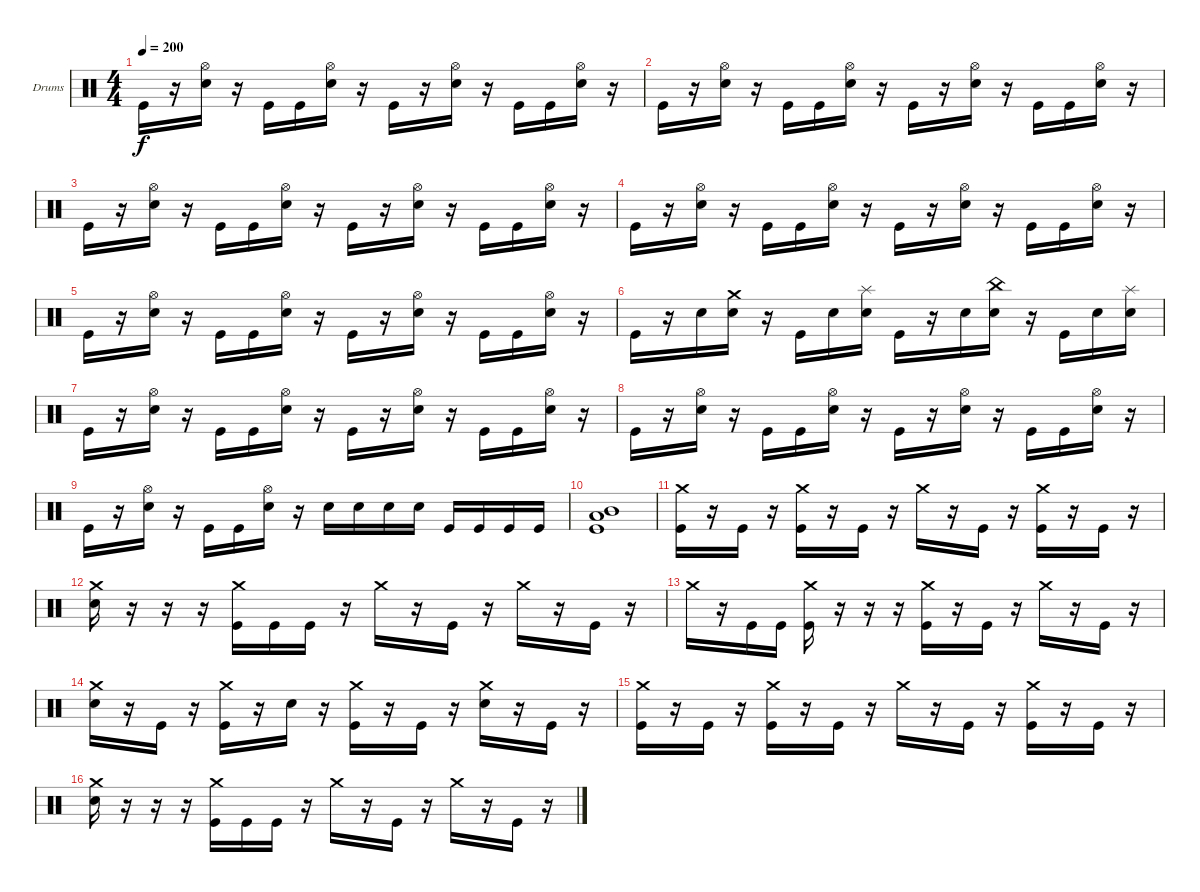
\defaultSystemsLayout 4
\bracketExtendMode groupsimilarinstruments
\firstSystemTrackNameOrientation horizontal
\otherSystemsTrackNameOrientation horizontal
\track ("Drumkit" "Drums") {instrument percussion}
\staff {score}
\articulation defaults
\ts (4 4)
\tempo 200
\clef neutral
\ks c "Kick (hit)".16{dy f}
r.16 ("Snare (hit) 2" "Hi-Hat (open)").16 r.16 "Kick (hit)".16 "Kick (hit)".16 ("Snare (hit) 2" "Hi-Hat (open)").16 r.16 "Kick (hit)".16 r.16 ("Snare (hit) 2" "Hi-Hat (open)").16 r.16 "Kick (hit)".16 "Kick (hit)".16 ("Snare (hit) 2" "Hi-Hat (open)").16 r.16 |
"Kick (hit)".16 r.16 ("Snare (hit) 2" "Hi-Hat (open)").16 r.16 "Kick (hit)".16 "Kick (hit)".16 ("Snare (hit) 2" "Hi-Hat (open)").16 r.16 "Kick (hit)".16 r.16 ("Snare (hit) 2" "Hi-Hat (open)").16 r.16 "Kick (hit)".16 "Kick (hit)".16 ("Snare (hit) 2" "Hi-Hat (open)").16 r.16 |
"Kick (hit)".16 r.16 ("Snare (hit) 2" "Hi-Hat (open)").16 r.16 "Kick (hit)".16 "Kick (hit)".16 ("Snare (hit) 2" "Hi-Hat (open)").16 r.16 "Kick (hit)".16 r.16 ("Snare (hit) 2" "Hi-Hat (open)").16 r.16 "Kick (hit)".16 "Kick (hit)".16 ("Snare (hit) 2" "Hi-Hat (open)").16 r.16 |
"Kick (hit)".16 r.16 ("Snare (hit) 2" "Hi-Hat (open)").16 r.16 "Kick (hit)".16 "Kick (hit)".16 ("Snare (hit) 2" "Hi-Hat (open)").16 r.16 "Kick (hit)".16 r.16 ("Snare (hit) 2" "Hi-Hat (open)").16 r.16 "Kick (hit)".16 "Kick (hit)".16 ("Snare (hit) 2" "Hi-Hat (open)").16 r.16 |
"Kick (hit)".16 r.16 ("Snare (hit) 2" "Hi-Hat (open)").16 r.16 "Kick (hit)".16 "Kick (hit)".16 ("Snare (hit) 2" "Hi-Hat (open)").16 r.16 "Kick (hit)".16 r.16 ("Snare (hit) 2" "Hi-Hat (open)").16 r.16 "Kick (hit)".16 "Kick (hit)".16 ("Snare (hit) 2" "Hi-Hat (open)").16 r.16 |
"Kick (hit)".16 r.16 "Snare (hit) 2".16 ("Snare (hit) 2" "Crash medium (hit)").16 r.16 "Kick (hit)".16 "Snare (hit) 2".16 ("Snare (hit) 2" "Splash (hit)").16 "Kick (hit)".16 r.16 "Snare (hit) 2".16 ("Snare (hit) 2" "China (hit)").16 r.16 "Kick (hit)".16 "Snare (hit) 2".16 ("Snare (hit) 2" "Splash (hit)").16 |
"Kick (hit)".16 r.16 ("Snare (hit) 2" "Hi-Hat (open)").16 r.16 "Kick (hit)".16 "Kick (hit)".16 ("Snare (hit) 2" "Hi-Hat (open)").16 r.16 "Kick (hit)".16 r.16 ("Snare (hit) 2" "Hi-Hat (open)").16 r.16 "Kick (hit)".16 "Kick (hit)".16 ("Snare (hit) 2" "Hi-Hat (open)").16 r.16 |
"Kick (hit)".16 r.16 ("Snare (hit) 2" "Hi-Hat (open)").16 r.16 "Kick (hit)".16 "Kick (hit)".16 ("Snare (hit) 2" "Hi-Hat (open)").16 r.16 "Kick (hit)".16 r.16 ("Snare (hit) 2" "Hi-Hat (open)").16 r.16 "Kick (hit)".16 "Kick (hit)".16 ("Snare (hit) 2" "Hi-Hat (open)").16 r.16 |
"Kick (hit)".16 r.16 ("Snare (hit) 2" "Hi-Hat (open)").16 r.16 "Kick (hit)".16 "Kick (hit)".16 ("Snare (hit) 2" "Hi-Hat (open)").16 r.16 "Snare (hit) 2".16 "Snare (hit) 2".16 "Snare (hit) 2".16 "Snare (hit) 2".16 "Kick (hit)".16 "Kick (hit)".16 "Kick (hit)".16 "Kick (hit)".16 |
("Kick (hit)" "Low Tom (hit)" "Mid Tom (hit)").1 |
("Kick (hit)" "Crash medium (hit)").16 r.16 "Kick (hit)".16 r.16 ("Kick (hit)" "Crash medium (hit)").16 r.16 "Kick (hit)".16 r.16 "Crash medium (hit)".16 r.16 "Kick (hit)".16 r.16 ("Kick (hit)" "Crash medium (hit)").16 r.16 "Kick (hit)".16 r.16 |
("Snare (hit) 2" "Crash medium (hit)").16 r.16 r.16 r.16 ("Crash medium (hit)" "Kick (hit)").16 "Kick (hit)".16 "Kick (hit)".16 r.16 "Crash medium (hit)".16 r.16 "Kick (hit)".16 r.16 "Crash medium (hit)".16 r.16 "Kick (hit)".16 r.16 |
"Crash medium (hit)".16 r.16 "Kick (hit)".16 "Kick (hit)".16 ("Kick (hit)" "Crash medium (hit)").16 r.16 r.16 r.16 ("Crash medium (hit)" "Kick (hit)").16 r.16 "Kick (hit)".16 r.16 "Crash medium (hit)".16 r.16 "Kick (hit)".16 r.16 |
("Snare (hit) 2" "Crash medium (hit)").16 r.16 "Kick (hit)".16 r.16 ("Kick (hit)" "Crash medium (hit)").16 r.16 "Snare (hit) 2".16 r.16 ("Kick (hit)" "Crash medium (hit)").16 r.16 "Kick (hit)".16 r.16 ("Snare (hit) 2" "Crash medium (hit)").16 r.16 "Kick (hit)".16 r.16 |
("Kick (hit)" "Crash medium (hit)").16 r.16 "Kick (hit)".16 r.16 ("Kick (hit)" "Crash medium (hit)").16 r.16 "Kick (hit)".16 r.16 "Crash medium (hit)".16 r.16 "Kick (hit)".16 r.16 ("Kick (hit)" "Crash medium (hit)").16 r.16 "Kick (hit)".16 r.16 |
("Snare (hit) 2" "Crash medium (hit)").16 r.16 r.16 r.16 ("Crash medium (hit)" "Kick (hit)").16 "Kick (hit)".16 "Kick (hit)".16 r.16 "Crash medium (hit)".16 r.16 "Kick (hit)".16 r.16 "Crash medium (hit)".16 r.16 "Kick (hit)".16 r.16
